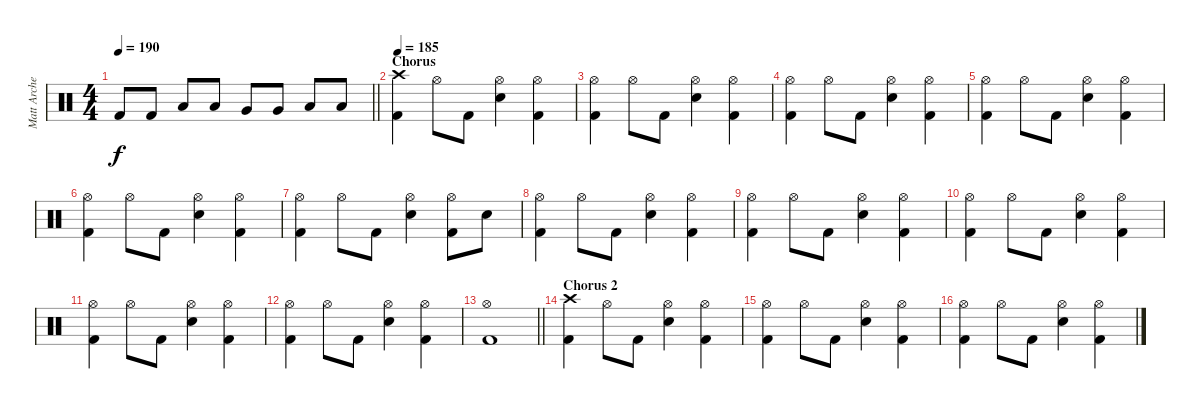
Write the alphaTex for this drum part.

\track ("Matt Archer" "Matt Arche") {instrument percussion}
\staff {score}
\articulation defaults
\ts (4 4)
\tempo 190
\clef neutral
\barLineRight lightlight
\ks c "Kick (hit) 2".8{dy f} "Kick (hit) 2".8 "Low Tom (hit)".8 "Low Tom (hit)".8 "Very Low Tom (hit)".8 "Very Low Tom (hit)".8 "Low Floor Tom (hit)".8 "Low Floor Tom (hit)".8
|
\section ("" "Chorus")
\tempo 185
("Crash high (hit)" "Kick (hit) 2").4 "Hi-Hat (open)".8 "Kick (hit) 2".8 ("Hi-Hat (open)" "Snare (hit) 2").4 ("Hi-Hat (open)" "Kick (hit) 2").4 |
("Hi-Hat (open)" "Kick (hit) 2").4 "Hi-Hat (open)".8 "Kick (hit) 2".8 ("Hi-Hat (open)" "Snare (hit) 2").4 ("Hi-Hat (open)" "Kick (hit) 2").4 |
("Hi-Hat (open)" "Kick (hit) 2").4 "Hi-Hat (open)".8 "Kick (hit) 2".8 ("Hi-Hat (open)" "Snare (hit) 2").4 ("Hi-Hat (open)" "Kick (hit) 2").4 |
("Hi-Hat (open)" "Kick (hit) 2").4 "Hi-Hat (open)".8 "Kick (hit) 2".8 ("Hi-Hat (open)" "Snare (hit) 2").4 ("Hi-Hat (open)" "Kick (hit) 2").4 |
("Hi-Hat (open)" "Kick (hit) 2").4 "Hi-Hat (open)".8 "Kick (hit) 2".8 ("Hi-Hat (open)" "Snare (hit) 2").4 ("Hi-Hat (open)" "Kick (hit) 2").4 |
("Hi-Hat (open)" "Kick (hit) 2").4 "Hi-Hat (open)".8 "Kick (hit) 2".8 ("Hi-Hat (open)" "Snare (hit) 2").4 ("Hi-Hat (open)" "Kick (hit) 2").8 "Snare (hit) 2".8 |
("Hi-Hat (open)" "Kick (hit) 2").4 "Hi-Hat (open)".8 "Kick (hit) 2".8 ("Hi-Hat (open)" "Snare (hit) 2").4 ("Hi-Hat (open)" "Kick (hit) 2").4 |
("Hi-Hat (open)" "Kick (hit) 2").4 "Hi-Hat (open)".8 "Kick (hit) 2".8 ("Hi-Hat (open)" "Snare (hit) 2").4 ("Hi-Hat (open)" "Kick (hit) 2").4 |
("Hi-Hat (open)" "Kick (hit) 2").4 "Hi-Hat (open)".8 "Kick (hit) 2".8 ("Hi-Hat (open)" "Snare (hit) 2").4 ("Hi-Hat (open)" "Kick (hit) 2").4 |
("Hi-Hat (open)" "Kick (hit) 2").4 "Hi-Hat (open)".8 "Kick (hit) 2".8 ("Hi-Hat (open)" "Snare (hit) 2").4 ("Hi-Hat (open)" "Kick (hit) 2").4 |
("Hi-Hat (open)" "Kick (hit) 2").4 "Hi-Hat (open)".8 "Kick (hit) 2".8 ("Hi-Hat (open)" "Snare (hit) 2").4 ("Hi-Hat (open)" "Kick (hit) 2").4 |
\barLineRight lightlight
("Hi-Hat (open)" "Kick (hit) 2").1 |
\section ("" "Chorus 2")
("Crash high (hit)" "Kick (hit) 2").4 "Hi-Hat (open)".8 "Kick (hit) 2".8 ("Hi-Hat (open)" "Snare (hit) 2").4 ("Hi-Hat (open)" "Kick (hit) 2").4 |
("Hi-Hat (open)" "Kick (hit) 2").4 "Hi-Hat (open)".8 "Kick (hit) 2".8 ("Hi-Hat (open)" "Snare (hit) 2").4 ("Hi-Hat (open)" "Kick (hit) 2").4 |
("Hi-Hat (open)" "Kick (hit) 2").4 "Hi-Hat (open)".8 "Kick (hit) 2".8 ("Hi-Hat (open)" "Snare (hit) 2").4 ("Hi-Hat (open)" "Kick (hit) 2").4
